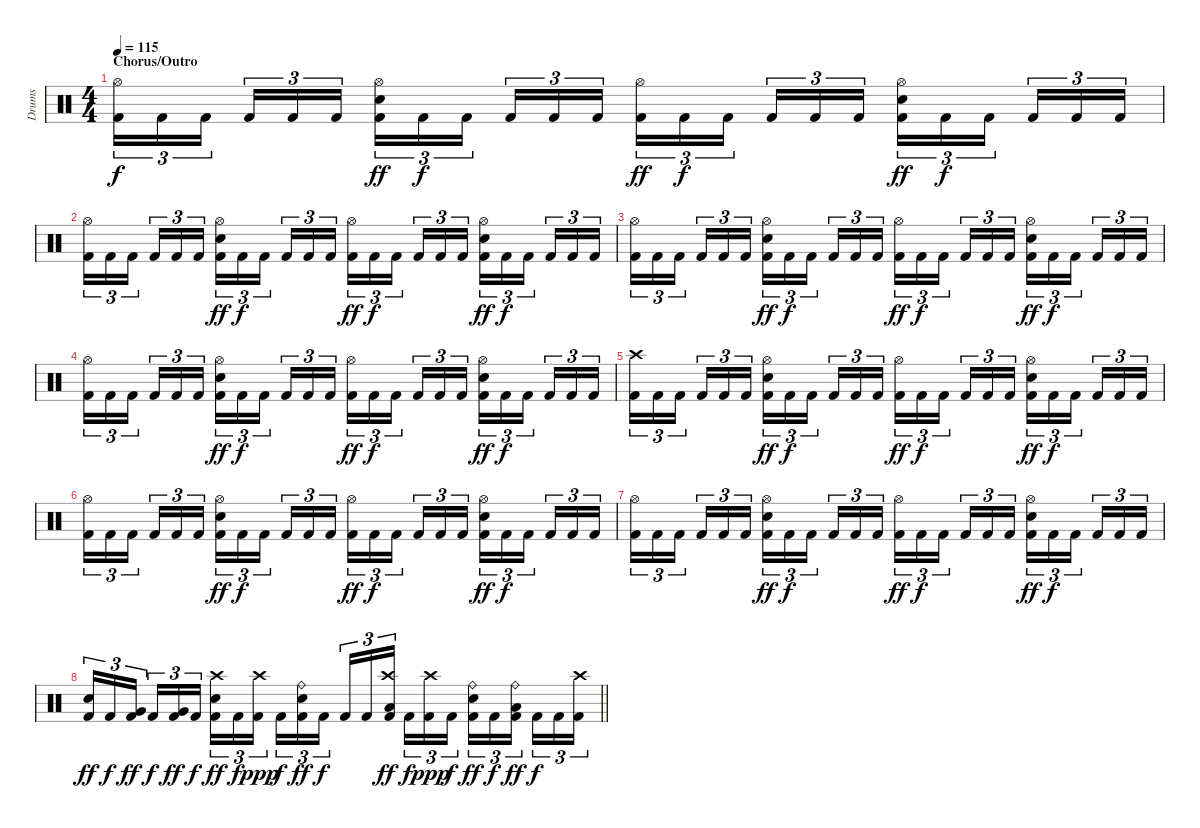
\track ("Drums" "Drums") {instrument percussion}
\staff {score}
\articulation defaults
\ts (4 4)
\section ("" "Chorus/Outro")
\tempo 115
\clef neutral
\ks c
("Hi-Hat (open)" "Kick (hit) 2").16{tu (3 2) dy f} "Kick (hit) 2".16{tu (3 2)} "Kick (hit) 2".16{tu (3 2) beam splitsecondary} "Kick (hit) 2".16{tu (3 2)} "Kick (hit) 2".16{tu (3 2)} "Kick (hit) 2".16{tu (3 2)} ("Hi-Hat (open)" "Electric Snare (hit)" "Kick (hit) 2").16{tu (3 2) dy ff} "Kick (hit) 2".16{tu (3 2) dy f} "Kick (hit) 2".16{tu (3 2) beam splitsecondary} "Kick (hit) 2".16{tu (3 2)} "Kick (hit) 2".16{tu (3 2)} "Kick (hit) 2".16{tu (3 2)} ("Hi-Hat (open)" "Kick (hit) 2").16{tu (3 2) dy ff} "Kick (hit) 2".16{tu (3 2) dy f} "Kick (hit) 2".16{tu (3 2) beam splitsecondary} "Kick (hit) 2".16{tu (3 2)} "Kick (hit) 2".16{tu (3 2)} "Kick (hit) 2".16{tu (3 2)} ("Hi-Hat (open)" "Electric Snare (hit)" "Kick (hit) 2").16{tu (3 2) dy ff} "Kick (hit) 2".16{tu (3 2) dy f} "Kick (hit) 2".16{tu (3 2) beam splitsecondary} "Kick (hit) 2".16{tu (3 2)} "Kick (hit) 2".16{tu (3 2)} "Kick (hit) 2".16{tu (3 2)} |
("Hi-Hat (open)" "Kick (hit) 2").16{tu (3 2)} "Kick (hit) 2".16{tu (3 2)} "Kick (hit) 2".16{tu (3 2) beam splitsecondary} "Kick (hit) 2".16{tu (3 2)} "Kick (hit) 2".16{tu (3 2)} "Kick (hit) 2".16{tu (3 2)} ("Hi-Hat (open)" "Electric Snare (hit)" "Kick (hit) 2").16{tu (3 2) dy ff} "Kick (hit) 2".16{tu (3 2) dy f} "Kick (hit) 2".16{tu (3 2) beam splitsecondary} "Kick (hit) 2".16{tu (3 2)} "Kick (hit) 2".16{tu (3 2)} "Kick (hit) 2".16{tu (3 2)} ("Hi-Hat (open)" "Kick (hit) 2").16{tu (3 2) dy ff} "Kick (hit) 2".16{tu (3 2) dy f} "Kick (hit) 2".16{tu (3 2) beam splitsecondary} "Kick (hit) 2".16{tu (3 2)} "Kick (hit) 2".16{tu (3 2)} "Kick (hit) 2".16{tu (3 2)} ("Hi-Hat (open)" "Electric Snare (hit)" "Kick (hit) 2").16{tu (3 2) dy ff} "Kick (hit) 2".16{tu (3 2) dy f} "Kick (hit) 2".16{tu (3 2) beam splitsecondary} "Kick (hit) 2".16{tu (3 2)} "Kick (hit) 2".16{tu (3 2)} "Kick (hit) 2".16{tu (3 2)} |
("Hi-Hat (open)" "Kick (hit) 2").16{tu (3 2)} "Kick (hit) 2".16{tu (3 2)} "Kick (hit) 2".16{tu (3 2) beam splitsecondary} "Kick (hit) 2".16{tu (3 2)} "Kick (hit) 2".16{tu (3 2)} "Kick (hit) 2".16{tu (3 2)} ("Hi-Hat (open)" "Electric Snare (hit)" "Kick (hit) 2").16{tu (3 2) dy ff} "Kick (hit) 2".16{tu (3 2) dy f} "Kick (hit) 2".16{tu (3 2) beam splitsecondary} "Kick (hit) 2".16{tu (3 2)} "Kick (hit) 2".16{tu (3 2)} "Kick (hit) 2".16{tu (3 2)} ("Hi-Hat (open)" "Kick (hit) 2").16{tu (3 2) dy ff} "Kick (hit) 2".16{tu (3 2) dy f} "Kick (hit) 2".16{tu (3 2) beam splitsecondary} "Kick (hit) 2".16{tu (3 2)} "Kick (hit) 2".16{tu (3 2)} "Kick (hit) 2".16{tu (3 2)} ("Hi-Hat (open)" "Electric Snare (hit)" "Kick (hit) 2").16{tu (3 2) dy ff} "Kick (hit) 2".16{tu (3 2) dy f} "Kick (hit) 2".16{tu (3 2) beam splitsecondary} "Kick (hit) 2".16{tu (3 2)} "Kick (hit) 2".16{tu (3 2)} "Kick (hit) 2".16{tu (3 2)} |
("Hi-Hat (open)" "Kick (hit) 2").16{tu (3 2)} "Kick (hit) 2".16{tu (3 2)} "Kick (hit) 2".16{tu (3 2) beam splitsecondary} "Kick (hit) 2".16{tu (3 2)} "Kick (hit) 2".16{tu (3 2)} "Kick (hit) 2".16{tu (3 2)} ("Hi-Hat (open)" "Electric Snare (hit)" "Kick (hit) 2").16{tu (3 2) dy ff} "Kick (hit) 2".16{tu (3 2) dy f} "Kick (hit) 2".16{tu (3 2) beam splitsecondary} "Kick (hit) 2".16{tu (3 2)} "Kick (hit) 2".16{tu (3 2)} "Kick (hit) 2".16{tu (3 2)} ("Hi-Hat (open)" "Kick (hit) 2").16{tu (3 2) dy ff} "Kick (hit) 2".16{tu (3 2) dy f} "Kick (hit) 2".16{tu (3 2) beam splitsecondary} "Kick (hit) 2".16{tu (3 2)} "Kick (hit) 2".16{tu (3 2)} "Kick (hit) 2".16{tu (3 2)} ("Hi-Hat (open)" "Electric Snare (hit)" "Kick (hit) 2").16{tu (3 2) dy ff} "Kick (hit) 2".16{tu (3 2) dy f} "Kick (hit) 2".16{tu (3 2) beam splitsecondary} "Kick (hit) 2".16{tu (3 2)} "Kick (hit) 2".16{tu (3 2)} "Kick (hit) 2".16{tu (3 2)} |
("Crash high (hit)" "Kick (hit) 2").16{tu (3 2)} "Kick (hit) 2".16{tu (3 2)} "Kick (hit) 2".16{tu (3 2) beam splitsecondary} "Kick (hit) 2".16{tu (3 2)} "Kick (hit) 2".16{tu (3 2)} "Kick (hit) 2".16{tu (3 2)} ("Hi-Hat (open)" "Electric Snare (hit)" "Kick (hit) 2").16{tu (3 2) dy ff} "Kick (hit) 2".16{tu (3 2) dy f} "Kick (hit) 2".16{tu (3 2) beam splitsecondary} "Kick (hit) 2".16{tu (3 2)} "Kick (hit) 2".16{tu (3 2)} "Kick (hit) 2".16{tu (3 2)} ("Hi-Hat (open)" "Kick (hit) 2").16{tu (3 2) dy ff} "Kick (hit) 2".16{tu (3 2) dy f} "Kick (hit) 2".16{tu (3 2) beam splitsecondary} "Kick (hit) 2".16{tu (3 2)} "Kick (hit) 2".16{tu (3 2)} "Kick (hit) 2".16{tu (3 2)} ("Hi-Hat (open)" "Electric Snare (hit)" "Kick (hit) 2").16{tu (3 2) dy ff} "Kick (hit) 2".16{tu (3 2) dy f} "Kick (hit) 2".16{tu (3 2) beam splitsecondary} "Kick (hit) 2".16{tu (3 2)} "Kick (hit) 2".16{tu (3 2)} "Kick (hit) 2".16{tu (3 2)} |
("Hi-Hat (open)" "Kick (hit) 2").16{tu (3 2)} "Kick (hit) 2".16{tu (3 2)} "Kick (hit) 2".16{tu (3 2) beam splitsecondary} "Kick (hit) 2".16{tu (3 2)} "Kick (hit) 2".16{tu (3 2)} "Kick (hit) 2".16{tu (3 2)} ("Hi-Hat (open)" "Electric Snare (hit)" "Kick (hit) 2").16{tu (3 2) dy ff} "Kick (hit) 2".16{tu (3 2) dy f} "Kick (hit) 2".16{tu (3 2) beam splitsecondary} "Kick (hit) 2".16{tu (3 2)} "Kick (hit) 2".16{tu (3 2)} "Kick (hit) 2".16{tu (3 2)} ("Hi-Hat (open)" "Kick (hit) 2").16{tu (3 2) dy ff} "Kick (hit) 2".16{tu (3 2) dy f} "Kick (hit) 2".16{tu (3 2) beam splitsecondary} "Kick (hit) 2".16{tu (3 2)} "Kick (hit) 2".16{tu (3 2)} "Kick (hit) 2".16{tu (3 2)} ("Hi-Hat (open)" "Electric Snare (hit)" "Kick (hit) 2").16{tu (3 2) dy ff} "Kick (hit) 2".16{tu (3 2) dy f} "Kick (hit) 2".16{tu (3 2) beam splitsecondary} "Kick (hit) 2".16{tu (3 2)} "Kick (hit) 2".16{tu (3 2)} "Kick (hit) 2".16{tu (3 2)} |
("Hi-Hat (open)" "Kick (hit) 2").16{tu (3 2)} "Kick (hit) 2".16{tu (3 2)} "Kick (hit) 2".16{tu (3 2) beam splitsecondary} "Kick (hit) 2".16{tu (3 2)} "Kick (hit) 2".16{tu (3 2)} "Kick (hit) 2".16{tu (3 2)} ("Hi-Hat (open)" "Electric Snare (hit)" "Kick (hit) 2").16{tu (3 2) dy ff} "Kick (hit) 2".16{tu (3 2) dy f} "Kick (hit) 2".16{tu (3 2) beam splitsecondary} "Kick (hit) 2".16{tu (3 2)} "Kick (hit) 2".16{tu (3 2)} "Kick (hit) 2".16{tu (3 2)} ("Hi-Hat (open)" "Kick (hit) 2").16{tu (3 2) dy ff} "Kick (hit) 2".16{tu (3 2) dy f} "Kick (hit) 2".16{tu (3 2) beam splitsecondary} "Kick (hit) 2".16{tu (3 2)} "Kick (hit) 2".16{tu (3 2)} "Kick (hit) 2".16{tu (3 2)} ("Hi-Hat (open)" "Electric Snare (hit)" "Kick (hit) 2").16{tu (3 2) dy ff} "Kick (hit) 2".16{tu (3 2) dy f} "Kick (hit) 2".16{tu (3 2) beam splitsecondary} "Kick (hit) 2".16{tu (3 2)} "Kick (hit) 2".16{tu (3 2)} "Kick (hit) 2".16{tu (3 2)} |
\barLineRight lightlight
("Electric Snare (hit)" "Kick (hit) 2").16{tu (3 2) dy ff} "Kick (hit) 2".16{tu (3 2) dy f} ("Very Low Tom (hit)" "Kick (hit) 2").16{tu (3 2) dy ff beam splitsecondary} "Kick (hit) 2".16{tu (3 2) dy f} ("Very Low Tom (hit)" "Kick (hit) 2").16{tu (3 2) dy ff} "Kick (hit) 2".16{tu (3 2) dy f} ("Crash high (hit)" "Electric Snare (hit)" "Kick (hit) 2").16{tu (3 2) dy ff} "Kick (hit) 2".16{tu (3 2) dy f} ("Crash high (hit)" "Kick (hit) 2").16{tu (3 2) dy ppp beam splitsecondary} "Kick (hit) 2".16{tu (3 2) dy f} ("Ride (bell)" "Electric Snare (hit)" "Kick (hit) 2").16{tu (3 2) dy ff} "Kick (hit) 2".16{tu (3 2) dy f} "Kick (hit) 2".16{tu (3 2)} "Kick (hit) 2".16{tu (3 2)} ("Crash high (hit)" "Low Floor Tom (hit)" "Kick (hit) 2").16{tu (3 2) dy ff beam splitsecondary} "Kick (hit) 2".16{tu (3 2) dy f} ("Crash high (hit)" "Kick (hit) 2").16{tu (3 2) dy ppp} "Kick (hit) 2".16{tu (3 2) dy f} ("Ride (bell)" "Electric Snare (hit)" "Kick (hit) 2").16{tu (3 2) dy ff} "Kick (hit) 2".16{tu (3 2) dy f} ("Ride (bell)" "Low Tom (hit)" "Kick (hit) 2").16{tu (3 2) dy ff beam splitsecondary} "Kick (hit) 2".16{tu (3 2) dy f} "Kick (hit) 2".16{tu (3 2)} ("Crash high (hit)" "Kick (hit) 2").16{tu (3 2)}
